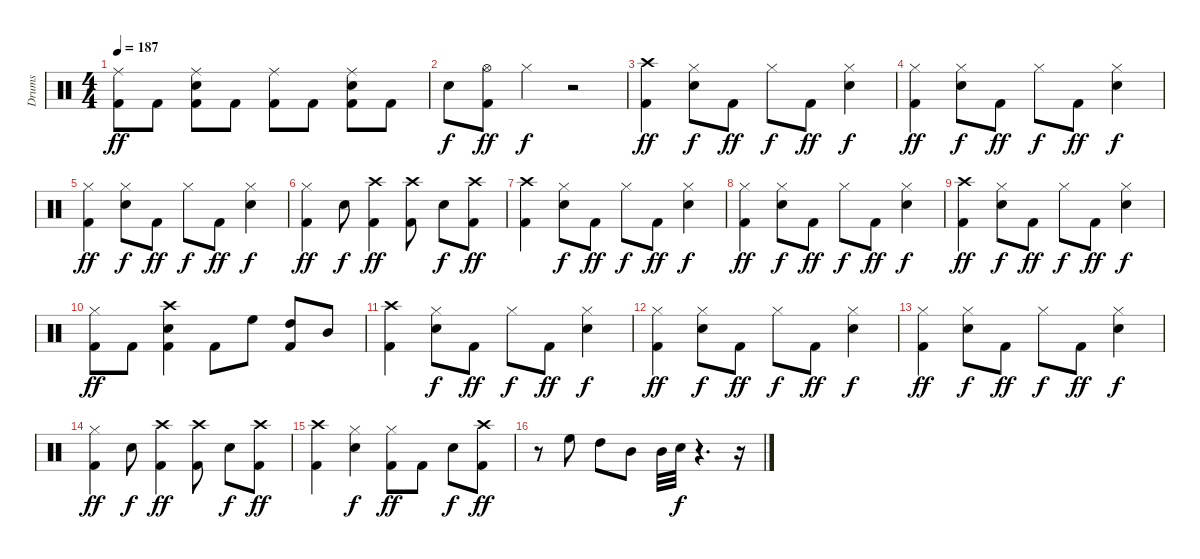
\track ("Drums" "Drums") {instrument percussion}
\staff {score}
\articulation defaults
\ts (4 4)
\tempo 187
\clef neutral
\ks c
("Ride (middle)" "Kick (hit) 2").8{dy ff} "Kick (hit) 2".8 ("Ride (middle)" "Electric Snare (hit)" "Kick (hit) 2").8 "Kick (hit) 2".8 ("Ride (middle)" "Kick (hit) 2").8 "Kick (hit) 2".8 ("Ride (middle)" "Electric Snare (hit)" "Kick (hit) 2").8 "Kick (hit) 2".8 |
"Electric Snare (hit)".8{dy f} ("Hi-Hat (open)" "Kick (hit) 2").8{dy ff} "Hi-Hat (closed)".4{dy f} r.2 |
("Crash high (hit)" "Kick (hit) 2").4{dy ff} ("Hi-Hat (closed)" "Electric Snare (hit)").8{dy f} "Kick (hit) 2".8{dy ff} "Hi-Hat (closed)".8{dy f} "Kick (hit) 2".8{dy ff} ("Hi-Hat (closed)" "Electric Snare (hit)").4{dy f} |
("Hi-Hat (closed)" "Kick (hit) 2").4{dy ff} ("Hi-Hat (closed)" "Electric Snare (hit)").8{dy f} "Kick (hit) 2".8{dy ff} "Hi-Hat (closed)".8{dy f} "Kick (hit) 2".8{dy ff} ("Hi-Hat (closed)" "Electric Snare (hit)").4{dy f} |
("Hi-Hat (closed)" "Kick (hit) 2").4{dy ff} ("Hi-Hat (closed)" "Electric Snare (hit)").8{dy f} "Kick (hit) 2".8{dy ff} "Hi-Hat (closed)".8{dy f} "Kick (hit) 2".8{dy ff} ("Hi-Hat (closed)" "Electric Snare (hit)").4{dy f} |
("Hi-Hat (closed)" "Kick (hit) 2").4{dy ff} "Electric Snare (hit)".8{dy f} ("Crash high (hit)" "Kick (hit) 2").4{dy ff} ("Crash high (hit)" "Kick (hit) 2").8 "Electric Snare (hit)".8{dy f} ("Crash high (hit)" "Kick (hit) 2").8{dy ff} |
("Crash high (hit)" "Kick (hit) 2").4 ("Hi-Hat (closed)" "Electric Snare (hit)").8{dy f} "Kick (hit) 2".8{dy ff} "Hi-Hat (closed)".8{dy f} "Kick (hit) 2".8{dy ff} ("Hi-Hat (closed)" "Electric Snare (hit)").4{dy f} |
("Hi-Hat (closed)" "Kick (hit) 2").4{dy ff} ("Hi-Hat (closed)" "Electric Snare (hit)").8{dy f} "Kick (hit) 2".8{dy ff} "Hi-Hat (closed)".8{dy f} "Kick (hit) 2".8{dy ff} ("Hi-Hat (closed)" "Electric Snare (hit)").4{dy f} |
("Crash high (hit)" "Kick (hit) 2").4{dy ff} ("Hi-Hat (closed)" "Electric Snare (hit)").8{dy f} "Kick (hit) 2".8{dy ff} "Hi-Hat (closed)".8{dy f} "Kick (hit) 2".8{dy ff} ("Hi-Hat (closed)" "Electric Snare (hit)").4{dy f} |
("Hi-Hat (closed)" "Kick (hit) 2").8{dy ff} "Kick (hit) 2".8 ("Crash high (hit)" "Electric Snare (hit)" "Kick (hit) 2").4 "Kick (hit) 2".8 "High Floor Tom (hit)".8 ("High Tom (hit)" "Kick (hit) 2").8 "Mid Tom (hit)".8 |
("Crash high (hit)" "Kick (hit) 2").4 ("Hi-Hat (closed)" "Electric Snare (hit)").8{dy f} "Kick (hit) 2".8{dy ff} "Hi-Hat (closed)".8{dy f} "Kick (hit) 2".8{dy ff} ("Hi-Hat (closed)" "Electric Snare (hit)").4{dy f} |
("Hi-Hat (closed)" "Kick (hit) 2").4{dy ff} ("Hi-Hat (closed)" "Electric Snare (hit)").8{dy f} "Kick (hit) 2".8{dy ff} "Hi-Hat (closed)".8{dy f} "Kick (hit) 2".8{dy ff} ("Hi-Hat (closed)" "Electric Snare (hit)").4{dy f} |
("Hi-Hat (closed)" "Kick (hit) 2").4{dy ff} ("Hi-Hat (closed)" "Electric Snare (hit)").8{dy f} "Kick (hit) 2".8{dy ff} "Hi-Hat (closed)".8{dy f} "Kick (hit) 2".8{dy ff} ("Hi-Hat (closed)" "Electric Snare (hit)").4{dy f} |
("Hi-Hat (closed)" "Kick (hit) 2").4{dy ff} "Electric Snare (hit)".8{dy f} ("Crash high (hit)" "Kick (hit) 2").4{dy ff} ("Crash high (hit)" "Kick (hit) 2").8 "Electric Snare (hit)".8{dy f} ("Crash high (hit)" "Kick (hit) 2").8{dy ff} |
("Crash high (hit)" "Kick (hit) 2").4 ("Hi-Hat (closed)" "Electric Snare (hit)").4{dy f} ("Hi-Hat (closed)" "Kick (hit) 2").8{dy ff} "Kick (hit) 2".8 "Electric Snare (hit)".8{dy f} ("Crash high (hit)" "Kick (hit) 2").8{dy ff} |
r.8 "High Floor Tom (hit)".8 "High Tom (hit)".8 "Mid Tom (hit)".8 "Mid Tom (hit)".32 "Electric Snare (hit)".32{dy f} r.4{d} r.16
